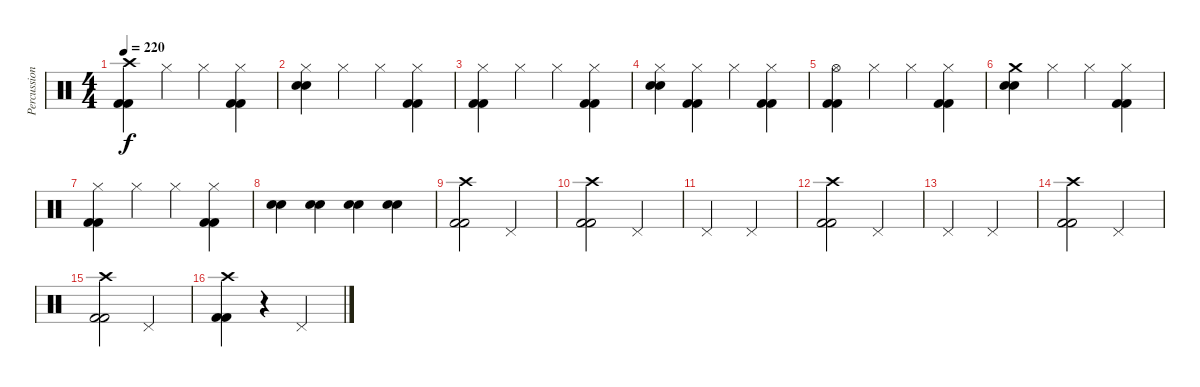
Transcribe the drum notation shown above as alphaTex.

\track ("Percussion" "Percussion") {instrument percussion}
\staff {score}
\articulation defaults
\ts (4 4)
\tempo 220
\clef neutral
\ks c
("Crash high (hit)" "Kick (hit) 2" "Kick (hit) 2").4{dy f} "Hi-Hat (closed)".4 "Hi-Hat (closed)".4 ("Hi-Hat (closed)" "Kick (hit) 2" "Kick (hit) 2").4 |
("Hi-Hat (closed)" "Electric Snare (hit)" "Electric Snare (hit)").4 "Hi-Hat (closed)".4 "Hi-Hat (closed)".4 ("Hi-Hat (closed)" "Kick (hit) 2" "Kick (hit) 2").4 |
("Hi-Hat (closed)" "Kick (hit) 2" "Kick (hit) 2").4 "Hi-Hat (closed)".4 "Hi-Hat (closed)".4 ("Hi-Hat (closed)" "Kick (hit) 2" "Kick (hit) 2").4 |
("Hi-Hat (closed)" "Electric Snare (hit)" "Electric Snare (hit)").4 ("Hi-Hat (closed)" "Kick (hit) 2" "Kick (hit) 2").4 "Hi-Hat (closed)".4 ("Hi-Hat (closed)" "Kick (hit) 2" "Kick (hit) 2").4 |
("Hi-Hat (open)" "Kick (hit) 2" "Kick (hit) 2").4 "Hi-Hat (closed)".4 "Hi-Hat (closed)".4 ("Hi-Hat (closed)" "Kick (hit) 2" "Kick (hit) 2").4 |
("Crash medium (hit)" "Electric Snare (hit)" "Electric Snare (hit)").4 "Hi-Hat (closed)".4 "Hi-Hat (closed)".4 ("Hi-Hat (closed)" "Kick (hit) 2" "Kick (hit) 2").4 |
("Hi-Hat (closed)" "Kick (hit) 2" "Kick (hit) 2").4 "Hi-Hat (closed)".4 "Hi-Hat (closed)".4 ("Hi-Hat (closed)" "Kick (hit) 2" "Kick (hit) 2").4 |
("Electric Snare (hit)" "Electric Snare (hit)").4 ("Electric Snare (hit)" "Electric Snare (hit)").4 ("Electric Snare (hit)" "Electric Snare (hit)").4 ("Electric Snare (hit)" "Electric Snare (hit)").4 |
("Crash high (hit)" "Kick (hit) 2" "Kick (hit) 2").2 "Pedal Hi-Hat (hit)".2 |
("Crash high (hit)" "Kick (hit) 2" "Kick (hit) 2").2 "Pedal Hi-Hat (hit)".2 |
"Pedal Hi-Hat (hit)".2 "Pedal Hi-Hat (hit)".2 |
("Crash high (hit)" "Kick (hit) 2" "Kick (hit) 2").2 "Pedal Hi-Hat (hit)".2 |
"Pedal Hi-Hat (hit)".2 "Pedal Hi-Hat (hit)".2 |
("Crash high (hit)" "Kick (hit) 2" "Kick (hit) 2").2 "Pedal Hi-Hat (hit)".2 |
("Crash high (hit)" "Kick (hit) 2" "Kick (hit) 2").2 "Pedal Hi-Hat (hit)".2 |
("Crash high (hit)" "Kick (hit) 2" "Kick (hit) 2").4 r.4 "Pedal Hi-Hat (hit)".2
